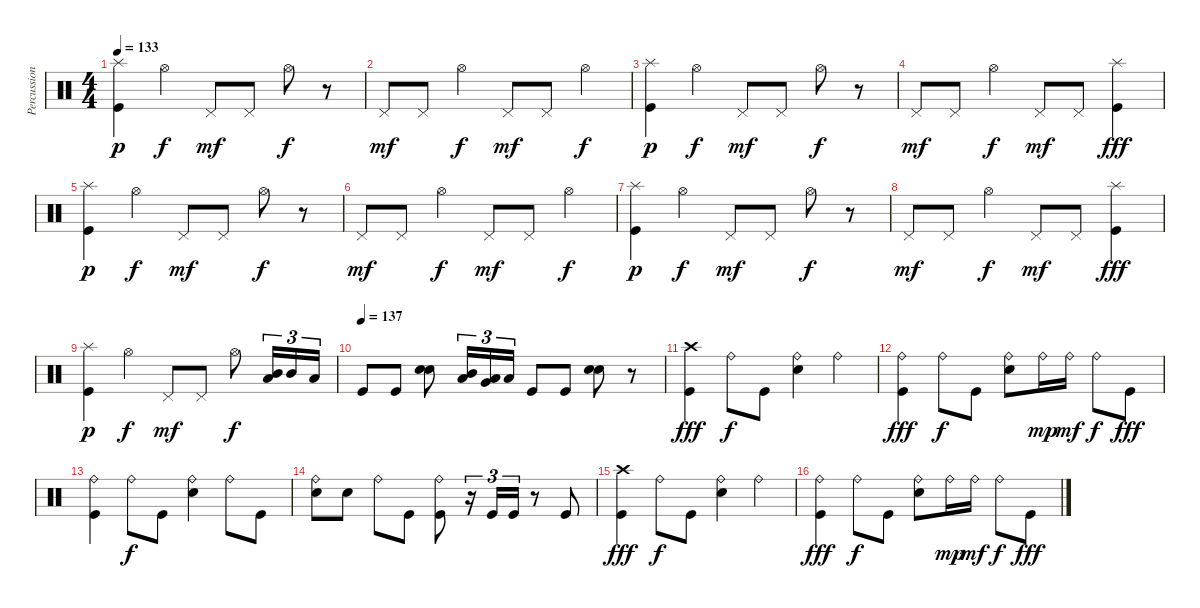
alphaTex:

\track ("Percussion/Nicko McBrain" "Percussion") {instrument percussion}
\staff {score}
\articulation defaults
\ts (4 4)
\tempo 133
\clef neutral
\ks c
("Splash (hit)" "Kick (hit)").4{dy p} "Hi-Hat (open)".4{dy f} "Pedal Hi-Hat (hit)".8{dy mf} "Pedal Hi-Hat (hit)".8 "Hi-Hat (open)".8{dy f} r.8 |
"Pedal Hi-Hat (hit)".8{dy mf} "Pedal Hi-Hat (hit)".8 "Hi-Hat (open)".4{dy f} "Pedal Hi-Hat (hit)".8{dy mf} "Pedal Hi-Hat (hit)".8 "Hi-Hat (open)".4{dy f} |
("Splash (hit)" "Kick (hit)").4{dy p} "Hi-Hat (open)".4{dy f} "Pedal Hi-Hat (hit)".8{dy mf} "Pedal Hi-Hat (hit)".8 "Hi-Hat (open)".8{dy f} r.8 |
"Pedal Hi-Hat (hit)".8{dy mf} "Pedal Hi-Hat (hit)".8 "Hi-Hat (open)".4{dy f} "Pedal Hi-Hat (hit)".8{dy mf} "Pedal Hi-Hat (hit)".8 ("Splash (hit)" "Kick (hit)").4{dy fff} |
("Splash (hit)" "Kick (hit)").4{dy p} "Hi-Hat (open)".4{dy f} "Pedal Hi-Hat (hit)".8{dy mf} "Pedal Hi-Hat (hit)".8 "Hi-Hat (open)".8{dy f} r.8 |
"Pedal Hi-Hat (hit)".8{dy mf} "Pedal Hi-Hat (hit)".8 "Hi-Hat (open)".4{dy f} "Pedal Hi-Hat (hit)".8{dy mf} "Pedal Hi-Hat (hit)".8 "Hi-Hat (open)".4{dy f} |
("Splash (hit)" "Kick (hit)").4{dy p} "Hi-Hat (open)".4{dy f} "Pedal Hi-Hat (hit)".8{dy mf} "Pedal Hi-Hat (hit)".8 "Hi-Hat (open)".8{dy f} r.8 |
"Pedal Hi-Hat (hit)".8{dy mf} "Pedal Hi-Hat (hit)".8 "Hi-Hat (open)".4{dy f} "Pedal Hi-Hat (hit)".8{dy mf} "Pedal Hi-Hat (hit)".8 ("Splash (hit)" "Kick (hit)").4{dy fff} |
("Splash (hit)" "Kick (hit)").4{dy p} "Hi-Hat (open)".4{dy f} "Pedal Hi-Hat (hit)".8{dy mf} "Pedal Hi-Hat (hit)".8 "Hi-Hat (open)".8{dy f} ("Low Tom (hit)" "Mid Tom (hit)").16{tu (3 2)} "Mid Tom (hit)".16{tu (3 2)} "Low Tom (hit)".16{tu (3 2)} |
\tempo (137)
"Kick (hit)".8 "Kick (hit)".8 ("Snare (hit) 2" "Electric Snare (hit)").8 ("Low Tom (hit)" "Mid Tom (hit)").16{tu (3 2)} ("Very Low Tom (hit)" "Low Tom (hit)").16{tu (3 2)} "Low Floor Tom (hit)".16{tu (3 2)} "Kick (hit)".8 "Kick (hit)".8 ("Snare (hit) 2" "Electric Snare (hit)").8 r.8 |
("Crash high (hit)" "Kick (hit)").4{dy fff} "Ride (bell)".8{dy f} "Kick (hit)".8 ("Ride (bell)" "Electric Snare (hit)").4 "Ride (bell)".4 |
("Ride (bell)" "Kick (hit)").4{dy fff} "Ride (bell)".8{dy f} "Kick (hit)".8 ("Ride (bell)" "Electric Snare (hit)").8 "Ride (bell)".16{dy mp} "Ride (bell)".16{dy mf} "Ride (bell)".8{dy f} "Kick (hit)".8{dy fff} |
("Ride (bell)" "Kick (hit)").4 "Ride (bell)".8{dy f} "Kick (hit)".8 ("Ride (bell)" "Electric Snare (hit)").4 "Ride (bell)".8 "Kick (hit)".8 |
("Ride (bell)" "Electric Snare (hit)").8 "Electric Snare (hit)".8 "Ride (bell)".8 "Kick (hit)".8 ("Ride (bell)" "Kick (hit)").8 r.16{tu (3 2)} "Kick (hit)".16{tu (3 2)} "Kick (hit)".16{tu (3 2)} r.8 "Kick (hit)".8 |
("Crash high (hit)" "Kick (hit)").4{dy fff} "Ride (bell)".8{dy f} "Kick (hit)".8 ("Ride (bell)" "Electric Snare (hit)").4 "Ride (bell)".4 |
("Ride (bell)" "Kick (hit)").4{dy fff} "Ride (bell)".8{dy f} "Kick (hit)".8 ("Ride (bell)" "Electric Snare (hit)").8 "Ride (bell)".16{dy mp} "Ride (bell)".16{dy mf} "Ride (bell)".8{dy f} "Kick (hit)".8{dy fff}
